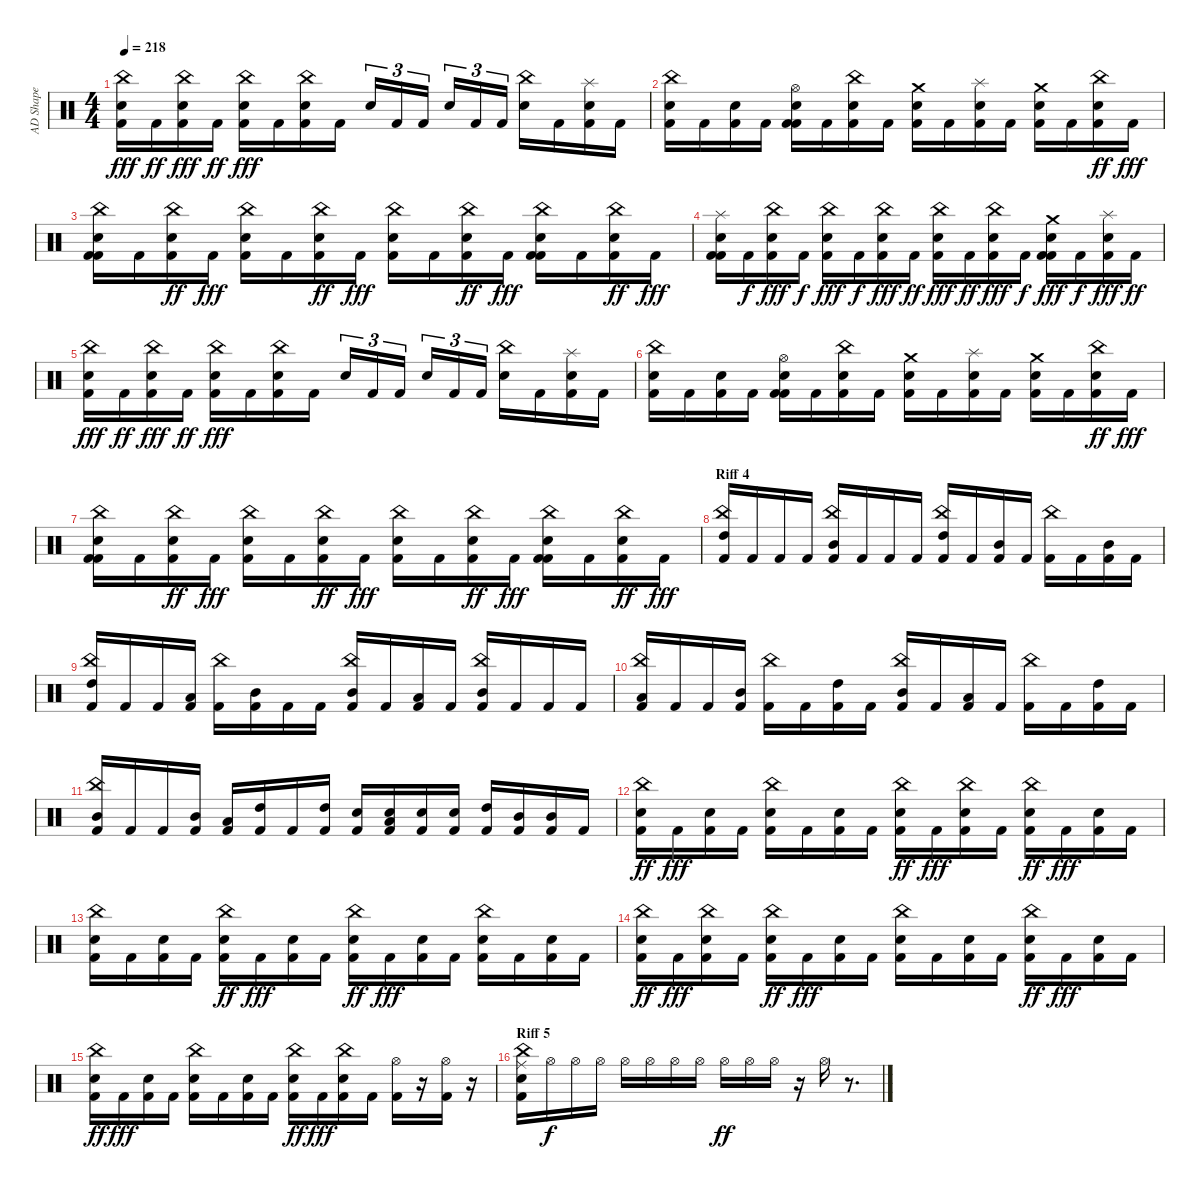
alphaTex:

\track ("AD Shape" "AD Shape") {instrument percussion}
\staff {score}
\articulation defaults
\ts (4 4)
\tempo 218
\clef neutral
\ks c
("Kick (hit) 2" "Snare (hit) 2" "China (hit)").16{dy fff} "Kick (hit) 2".16{dy ff} ("Kick (hit) 2" "Snare (hit) 2" "China (hit)").16{dy fff} "Kick (hit) 2".16{dy ff} ("Kick (hit) 2" "Snare (hit) 2" "China (hit)").16{dy fff} "Kick (hit) 2".16 ("Kick (hit) 2" "Snare (hit) 2" "China (hit)").16 "Kick (hit) 2".16 "Snare (hit) 2".16{tu (3 2)} "Kick (hit) 2".16{tu (3 2)} "Kick (hit) 2".16{tu (3 2)} "Snare (hit) 2".16{tu (3 2)} "Kick (hit) 2".16{tu (3 2)} "Kick (hit) 2".16{tu (3 2)} ("Snare (hit) 2" "China (hit)").16 "Kick (hit) 2".16 ("Kick (hit) 2" "Snare (hit) 2" "Splash (hit)").16 "Kick (hit) 2".16 |
("Kick (hit) 2" "Snare (hit) 2" "China (hit)").16 "Kick (hit) 2".16 ("Kick (hit) 2" "Snare (hit) 2").16 "Kick (hit) 2".16 ("Kick (hit) 2" "Kick (hit) 2" "Snare (hit) 2" "Hi-Hat (open)").16 "Kick (hit) 2".16 ("Kick (hit) 2" "Snare (hit) 2" "China (hit)").16 "Kick (hit) 2".16 ("Kick (hit) 2" "Snare (hit) 2" "Crash medium (hit)").16 "Kick (hit) 2".16 ("Kick (hit) 2" "Snare (hit) 2" "Splash (hit)").16 "Kick (hit) 2".16 ("Kick (hit) 2" "Snare (hit) 2" "Crash medium (hit)").16 "Kick (hit) 2".16 ("Kick (hit) 2" "Snare (hit) 2" "China (hit)").16{dy ff} "Kick (hit) 2".16{dy fff} |
("Kick (hit) 2" "Kick (hit) 2" "Snare (hit) 2" "China (hit)").16 "Kick (hit) 2".16 ("Kick (hit) 2" "Snare (hit) 2" "China (hit)").16{dy ff} "Kick (hit) 2".16{dy fff} ("Kick (hit) 2" "Snare (hit) 2" "China (hit)").16 "Kick (hit) 2".16 ("Kick (hit) 2" "Snare (hit) 2" "China (hit)").16{dy ff} "Kick (hit) 2".16{dy fff} ("Kick (hit) 2" "Snare (hit) 2" "China (hit)").16 "Kick (hit) 2".16 ("Kick (hit) 2" "Snare (hit) 2" "China (hit)").16{dy ff} "Kick (hit) 2".16{dy fff} ("Kick (hit) 2" "Kick (hit) 2" "Snare (hit) 2" "China (hit)").16 "Kick (hit) 2".16 ("Kick (hit) 2" "Snare (hit) 2" "China (hit)").16{dy ff} "Kick (hit) 2".16{dy fff} |
("Kick (hit) 2" "Kick (hit) 2" "Snare (hit) 2" "Splash (hit)").16 "Kick (hit) 2".16{dy f} ("Kick (hit) 2" "Snare (hit) 2" "China (hit)").16{dy fff} "Kick (hit) 2".16{dy f} ("Kick (hit) 2" "Snare (hit) 2" "China (hit)").16{dy fff} "Kick (hit) 2".16{dy f} ("Kick (hit) 2" "Snare (hit) 2" "China (hit)").16{dy fff} "Kick (hit) 2".16{dy ff} ("Kick (hit) 2" "Snare (hit) 2" "China (hit)").16{dy fff} "Kick (hit) 2".16{dy ff} ("Kick (hit) 2" "Snare (hit) 2" "China (hit)").16{dy fff} "Kick (hit) 2".16{dy f} ("Kick (hit) 2" "Kick (hit) 2" "Snare (hit) 2" "Crash medium (hit)").16{dy fff} "Kick (hit) 2".16{dy f} ("Kick (hit) 2" "Snare (hit) 2" "Splash (hit)").16{dy fff} "Kick (hit) 2".16{dy ff} |
("Kick (hit) 2" "Snare (hit) 2" "China (hit)").16{dy fff} "Kick (hit) 2".16{dy ff} ("Kick (hit) 2" "Snare (hit) 2" "China (hit)").16{dy fff} "Kick (hit) 2".16{dy ff} ("Kick (hit) 2" "Snare (hit) 2" "China (hit)").16{dy fff} "Kick (hit) 2".16 ("Kick (hit) 2" "Snare (hit) 2" "China (hit)").16 "Kick (hit) 2".16 "Snare (hit) 2".16{tu (3 2)} "Kick (hit) 2".16{tu (3 2)} "Kick (hit) 2".16{tu (3 2)} "Snare (hit) 2".16{tu (3 2)} "Kick (hit) 2".16{tu (3 2)} "Kick (hit) 2".16{tu (3 2)} ("Snare (hit) 2" "China (hit)").16 "Kick (hit) 2".16 ("Kick (hit) 2" "Snare (hit) 2" "Splash (hit)").16 "Kick (hit) 2".16 |
("Kick (hit) 2" "Snare (hit) 2" "China (hit)").16 "Kick (hit) 2".16 ("Kick (hit) 2" "Snare (hit) 2").16 "Kick (hit) 2".16 ("Kick (hit) 2" "Kick (hit) 2" "Snare (hit) 2" "Hi-Hat (open)").16 "Kick (hit) 2".16 ("Kick (hit) 2" "Snare (hit) 2" "China (hit)").16 "Kick (hit) 2".16 ("Kick (hit) 2" "Snare (hit) 2" "Crash medium (hit)").16 "Kick (hit) 2".16 ("Kick (hit) 2" "Snare (hit) 2" "Splash (hit)").16 "Kick (hit) 2".16 ("Kick (hit) 2" "Snare (hit) 2" "Crash medium (hit)").16 "Kick (hit) 2".16 ("Kick (hit) 2" "Snare (hit) 2" "China (hit)").16{dy ff} "Kick (hit) 2".16{dy fff} |
("Kick (hit) 2" "Kick (hit) 2" "Snare (hit) 2" "China (hit)").16 "Kick (hit) 2".16 ("Kick (hit) 2" "Snare (hit) 2" "China (hit)").16{dy ff} "Kick (hit) 2".16{dy fff} ("Kick (hit) 2" "Snare (hit) 2" "China (hit)").16 "Kick (hit) 2".16 ("Kick (hit) 2" "Snare (hit) 2" "China (hit)").16{dy ff} "Kick (hit) 2".16{dy fff} ("Kick (hit) 2" "Snare (hit) 2" "China (hit)").16 "Kick (hit) 2".16 ("Kick (hit) 2" "Snare (hit) 2" "China (hit)").16{dy ff} "Kick (hit) 2".16{dy fff} ("Kick (hit) 2" "Kick (hit) 2" "Snare (hit) 2" "China (hit)").16 "Kick (hit) 2".16 ("Kick (hit) 2" "Snare (hit) 2" "China (hit)").16{dy ff} "Kick (hit) 2".16{dy fff} |
\section ("" "Riff 4")
("Kick (hit) 2" "High Tom (hit)" "China (hit)").16 "Kick (hit) 2".16 "Kick (hit) 2".16 "Kick (hit) 2".16 ("Kick (hit) 2" "Mid Tom (hit)" "China (hit)").16 "Kick (hit) 2".16 "Kick (hit) 2".16 "Kick (hit) 2".16 ("Kick (hit) 2" "High Tom (hit)" "China (hit)").16 "Kick (hit) 2".16 ("Kick (hit) 2" "Mid Tom (hit)").16 "Kick (hit) 2".16 ("Kick (hit) 2" "China (hit)").16 "Kick (hit) 2".16 ("Kick (hit) 2" "Mid Tom (hit)").16 "Kick (hit) 2".16 |
("Kick (hit) 2" "High Tom (hit)" "China (hit)").16 "Kick (hit) 2".16 "Kick (hit) 2".16 ("Kick (hit) 2" "Low Tom (hit)").16 ("Kick (hit) 2" "China (hit)").16 ("Kick (hit) 2" "Mid Tom (hit)").16 "Kick (hit) 2".16 "Kick (hit) 2".16 ("Kick (hit) 2" "Mid Tom (hit)" "China (hit)").16 "Kick (hit) 2".16 ("Kick (hit) 2" "Low Tom (hit)").16 "Kick (hit) 2".16 ("Kick (hit) 2" "Mid Tom (hit)" "China (hit)").16 "Kick (hit) 2".16 "Kick (hit) 2".16 "Kick (hit) 2".16 |
("Kick (hit) 2" "Low Tom (hit)" "China (hit)").16 "Kick (hit) 2".16 "Kick (hit) 2".16 ("Kick (hit) 2" "Mid Tom (hit)").16 ("Kick (hit) 2" "China (hit)").16 "Kick (hit) 2".16 ("Kick (hit) 2" "High Tom (hit)").16 "Kick (hit) 2".16 ("Kick (hit) 2" "Mid Tom (hit)" "China (hit)").16 "Kick (hit) 2".16 ("Kick (hit) 2" "Low Tom (hit)").16 "Kick (hit) 2".16 ("Kick (hit) 2" "China (hit)").16 "Kick (hit) 2".16 ("Kick (hit) 2" "High Tom (hit)").16 "Kick (hit) 2".16 |
("Kick (hit) 2" "Mid Tom (hit)" "China (hit)").16 "Kick (hit) 2".16 "Kick (hit) 2".16 ("Kick (hit) 2" "Mid Tom (hit)").16 ("Kick (hit) 2" "Low Tom (hit)").16 ("Kick (hit) 2" "High Tom (hit)").16 "Kick (hit) 2".16 ("Kick (hit) 2" "High Tom (hit)").16 ("Kick (hit) 2" "Snare (hit) 2").16 ("Kick (hit) 2" "Snare (hit) 2" "Low Tom (hit)").16 ("Kick (hit) 2" "Snare (hit) 2").16 ("Kick (hit) 2" "Snare (hit) 2").16 ("Kick (hit) 2" "High Tom (hit)").16 ("Kick (hit) 2" "Mid Tom (hit)").16 ("Kick (hit) 2" "Mid Tom (hit)").16 "Kick (hit) 2".16 |
("Kick (hit) 2" "Snare (hit) 2" "China (hit)").16{dy ff} "Kick (hit) 2".16{dy fff} ("Kick (hit) 2" "Snare (hit) 2").16 "Kick (hit) 2".16 ("Kick (hit) 2" "Snare (hit) 2" "China (hit)").16 "Kick (hit) 2".16 ("Kick (hit) 2" "Snare (hit) 2").16 "Kick (hit) 2".16 ("Kick (hit) 2" "Snare (hit) 2" "China (hit)").16{dy ff} "Kick (hit) 2".16{dy fff} ("Kick (hit) 2" "Snare (hit) 2" "China (hit)").16 "Kick (hit) 2".16 ("Kick (hit) 2" "Snare (hit) 2" "China (hit)").16{dy ff} "Kick (hit) 2".16{dy fff} ("Kick (hit) 2" "Snare (hit) 2").16 "Kick (hit) 2".16 |
("Kick (hit) 2" "Snare (hit) 2" "China (hit)").16 "Kick (hit) 2".16 ("Kick (hit) 2" "Snare (hit) 2").16 "Kick (hit) 2".16 ("Kick (hit) 2" "Snare (hit) 2" "China (hit)").16{dy ff} "Kick (hit) 2".16{dy fff} ("Kick (hit) 2" "Snare (hit) 2").16 "Kick (hit) 2".16 ("Kick (hit) 2" "Snare (hit) 2" "China (hit)").16{dy ff} "Kick (hit) 2".16{dy fff} ("Kick (hit) 2" "Snare (hit) 2").16 "Kick (hit) 2".16 ("Kick (hit) 2" "Snare (hit) 2" "China (hit)").16 "Kick (hit) 2".16 ("Kick (hit) 2" "Snare (hit) 2").16 "Kick (hit) 2".16 |
("Kick (hit) 2" "Snare (hit) 2" "China (hit)").16{dy ff} "Kick (hit) 2".16{dy fff} ("Kick (hit) 2" "Snare (hit) 2" "China (hit)").16 "Kick (hit) 2".16 ("Kick (hit) 2" "Snare (hit) 2" "China (hit)").16{dy ff} "Kick (hit) 2".16{dy fff} ("Kick (hit) 2" "Snare (hit) 2").16 "Kick (hit) 2".16 ("Kick (hit) 2" "Snare (hit) 2" "China (hit)").16 "Kick (hit) 2".16 ("Kick (hit) 2" "Snare (hit) 2").16 "Kick (hit) 2".16 ("Kick (hit) 2" "Snare (hit) 2" "China (hit)").16{dy ff} "Kick (hit) 2".16{dy fff} ("Kick (hit) 2" "Snare (hit) 2").16 "Kick (hit) 2".16 |
("Kick (hit) 2" "Snare (hit) 2" "China (hit)").16{dy ff} "Kick (hit) 2".16{dy fff} ("Kick (hit) 2" "Snare (hit) 2").16 "Kick (hit) 2".16 ("Kick (hit) 2" "Snare (hit) 2" "China (hit)").16 "Kick (hit) 2".16 ("Kick (hit) 2" "Snare (hit) 2").16 "Kick (hit) 2".16 ("Kick (hit) 2" "Snare (hit) 2" "China (hit)").16{dy ff} "Kick (hit) 2".16{dy fff} ("Kick (hit) 2" "Snare (hit) 2" "China (hit)").16 "Kick (hit) 2".16 ("Kick (hit) 2" "Hi-Hat (open)").16 r.16 ("Kick (hit) 2" "Hi-Hat (open)").16 r.16 |
\section ("" "Riff 5")
("Kick (hit) 2" "Snare (hit) 2" "China (hit)" "Ride (middle)").16 "Hi-Hat (open)".16{dy f} "Hi-Hat (open)".16 "Hi-Hat (open)".16 "Hi-Hat (open)".16 "Hi-Hat (open)".16 "Hi-Hat (open)".16 "Hi-Hat (open)".16 "Hi-Hat (open)".16{dy ff} "Hi-Hat (open)".16 "Hi-Hat (open)".16 r.16 "Hi-Hat (open)".16 r.8{d}
